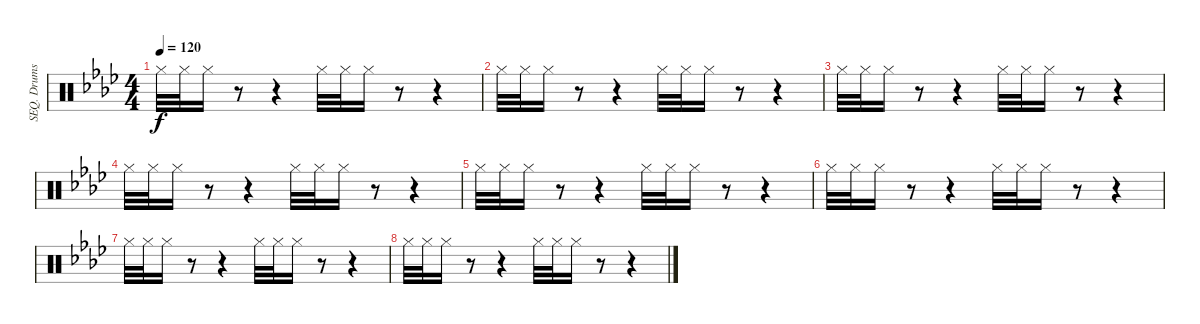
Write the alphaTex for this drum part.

\track ("SEQ. Drums" "SEQ. Drums") {instrument percussion}
\staff {score}
\articulation defaults
\ts (4 4)
\tempo 120
\clef neutral
\ks ab "Hi-Hat (closed)".32{dy f} "Hi-Hat (closed)".32 "Hi-Hat (closed)".16
r.8 r.4 "Hi-Hat (closed)".32 "Hi-Hat (closed)".32 "Hi-Hat (closed)".16 r.8 r.4 |
"Hi-Hat (closed)".32 "Hi-Hat (closed)".32 "Hi-Hat (closed)".16 r.8 r.4 "Hi-Hat (closed)".32 "Hi-Hat (closed)".32 "Hi-Hat (closed)".16 r.8 r.4 |
"Hi-Hat (closed)".32 "Hi-Hat (closed)".32 "Hi-Hat (closed)".16 r.8 r.4 "Hi-Hat (closed)".32 "Hi-Hat (closed)".32 "Hi-Hat (closed)".16 r.8 r.4 |
"Hi-Hat (closed)".32 "Hi-Hat (closed)".32 "Hi-Hat (closed)".16 r.8 r.4 "Hi-Hat (closed)".32 "Hi-Hat (closed)".32 "Hi-Hat (closed)".16 r.8 r.4 |
"Hi-Hat (closed)".32 "Hi-Hat (closed)".32 "Hi-Hat (closed)".16 r.8 r.4 "Hi-Hat (closed)".32 "Hi-Hat (closed)".32 "Hi-Hat (closed)".16 r.8 r.4 |
"Hi-Hat (closed)".32 "Hi-Hat (closed)".32 "Hi-Hat (closed)".16 r.8 r.4 "Hi-Hat (closed)".32 "Hi-Hat (closed)".32 "Hi-Hat (closed)".16 r.8 r.4 |
"Hi-Hat (closed)".32 "Hi-Hat (closed)".32 "Hi-Hat (closed)".16 r.8 r.4 "Hi-Hat (closed)".32 "Hi-Hat (closed)".32 "Hi-Hat (closed)".16 r.8 r.4 |
"Hi-Hat (closed)".32 "Hi-Hat (closed)".32 "Hi-Hat (closed)".16 r.8 r.4 "Hi-Hat (closed)".32 "Hi-Hat (closed)".32 "Hi-Hat (closed)".16 r.8 r.4
